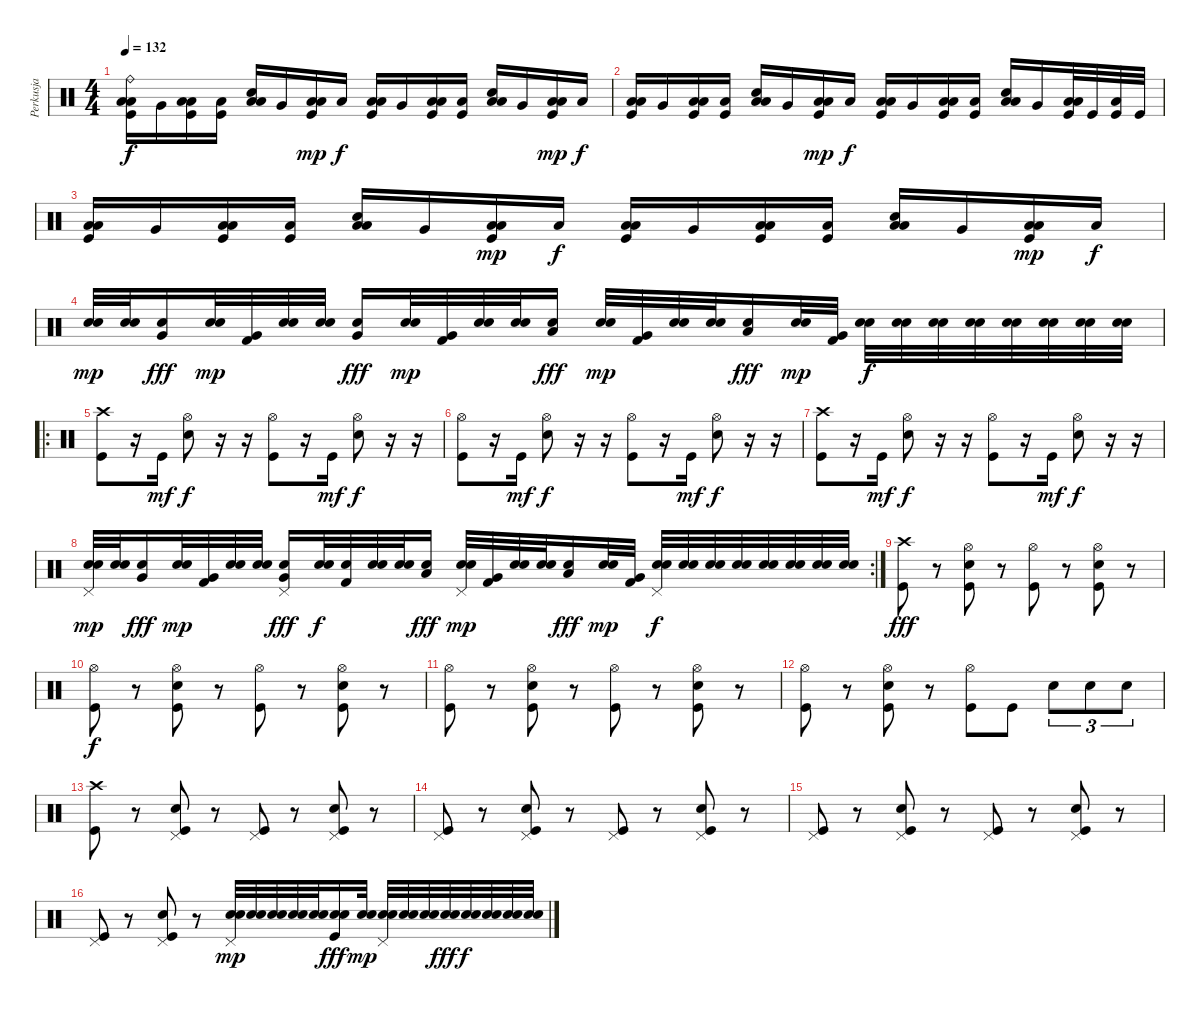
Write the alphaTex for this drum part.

\track ("Perkusja" "Perkusja") {instrument percussion}
\staff {score}
\articulation defaults
\ts (4 4)
\tempo 132
\clef neutral
\ks c
("Ride (bell)" "Low Floor Tom (hit)" "Low Floor Tom (hit)" "Kick (hit)").16{dy f} "Very Low Tom (hit)".16 ("Low Floor Tom (hit)" "Low Floor Tom (hit)" "Kick (hit)").16 ("Low Tom (hit)" "Kick (hit)").16 ("Low Floor Tom (hit)" "Low Floor Tom (hit)" "Electric Snare (hit)").16 "Very Low Tom (hit)".16 ("Low Floor Tom (hit)" "Low Floor Tom (hit)" "Kick (hit)").16{dy mp} "Low Tom (hit)".16{dy f} ("Low Floor Tom (hit)" "Low Floor Tom (hit)" "Kick (hit)").16 "Very Low Tom (hit)".16 ("Low Floor Tom (hit)" "Low Floor Tom (hit)" "Kick (hit)").16 ("Low Tom (hit)" "Kick (hit)").16 ("Low Floor Tom (hit)" "Low Floor Tom (hit)" "Electric Snare (hit)").16 "Very Low Tom (hit)".16 ("Low Floor Tom (hit)" "Low Floor Tom (hit)" "Kick (hit)").16{dy mp} "Low Tom (hit)".16{dy f} |
("Low Floor Tom (hit)" "Low Floor Tom (hit)" "Kick (hit)").16 "Very Low Tom (hit)".16 ("Low Floor Tom (hit)" "Low Floor Tom (hit)" "Kick (hit)").16 ("Low Tom (hit)" "Kick (hit)").16 ("Low Floor Tom (hit)" "Low Floor Tom (hit)" "Electric Snare (hit)").16 "Very Low Tom (hit)".16 ("Low Floor Tom (hit)" "Low Floor Tom (hit)" "Kick (hit)").16{dy mp} "Low Tom (hit)".16{dy f} ("Low Floor Tom (hit)" "Low Floor Tom (hit)" "Kick (hit)").16 "Very Low Tom (hit)".16 ("Low Floor Tom (hit)" "Low Floor Tom (hit)" "Kick (hit)").16 ("Low Tom (hit)" "Kick (hit)").16 ("Low Floor Tom (hit)" "Low Floor Tom (hit)" "Electric Snare (hit)").16 "Very Low Tom (hit)".16 ("Low Floor Tom (hit)" "Low Floor Tom (hit)" "Kick (hit)").32 "Kick (hit)".32 ("Low Tom (hit)" "Kick (hit)").32 "Kick (hit)".32 |
("Low Floor Tom (hit)" "Low Floor Tom (hit)" "Kick (hit)").16 "Very Low Tom (hit)".16 ("Low Floor Tom (hit)" "Low Floor Tom (hit)" "Kick (hit)").16 ("Low Tom (hit)" "Kick (hit)").16 ("Low Floor Tom (hit)" "Low Floor Tom (hit)" "Electric Snare (hit)").16 "Very Low Tom (hit)".16 ("Low Floor Tom (hit)" "Low Floor Tom (hit)" "Kick (hit)").16{dy mp} "Low Tom (hit)".16{dy f} ("Low Floor Tom (hit)" "Low Floor Tom (hit)" "Kick (hit)").16 "Very Low Tom (hit)".16 ("Low Floor Tom (hit)" "Low Floor Tom (hit)" "Kick (hit)").16 ("Low Tom (hit)" "Kick (hit)").16 ("Low Floor Tom (hit)" "Low Floor Tom (hit)" "Electric Snare (hit)").16 "Very Low Tom (hit)".16 ("Low Floor Tom (hit)" "Low Floor Tom (hit)" "Kick (hit)").16{dy mp} "Low Tom (hit)".16{dy f} |
("Electric Snare (hit)" "Electric Snare (hit)").32{dy mp} ("Electric Snare (hit)" "Electric Snare (hit)").32 ("Very Low Tom (hit)" "Electric Snare (hit)").16{dy fff} ("Electric Snare (hit)" "Electric Snare (hit)").32{dy mp} ("Very Low Tom (hit)" "Kick (hit) 2").32 ("Electric Snare (hit)" "Electric Snare (hit)").32 ("Electric Snare (hit)" "Electric Snare (hit)").32 ("Very Low Tom (hit)" "Electric Snare (hit)").16{dy fff} ("Electric Snare (hit)" "Electric Snare (hit)").32{dy mp} ("Very Low Tom (hit)" "Kick (hit) 2").32 ("Electric Snare (hit)" "Electric Snare (hit)").32 ("Electric Snare (hit)" "Electric Snare (hit)").32 ("Low Tom (hit)" "Electric Snare (hit)").16{dy fff} ("Electric Snare (hit)" "Electric Snare (hit)").32{dy mp} ("Very Low Tom (hit)" "Kick (hit) 2").32 ("Electric Snare (hit)" "Electric Snare (hit)").32 ("Electric Snare (hit)" "Electric Snare (hit)").32 ("Low Tom (hit)" "Electric Snare (hit)").16{dy fff} ("Electric Snare (hit)" "Electric Snare (hit)").32{dy mp} ("Very Low Tom (hit)" "Kick (hit) 2").32 ("Electric Snare (hit)" "Electric Snare (hit)").32{dy f} ("Electric Snare (hit)" "Electric Snare (hit)").32 ("Electric Snare (hit)" "Electric Snare (hit)").32 ("Electric Snare (hit)" "Electric Snare (hit)").32 ("Electric Snare (hit)" "Electric Snare (hit)").32 ("Electric Snare (hit)" "Electric Snare (hit)").32 ("Electric Snare (hit)" "Electric Snare (hit)").32 ("Electric Snare (hit)" "Electric Snare (hit)").32 |
\ro
("Crash high (hit)" "Kick (hit)").8 r.16 "Kick (hit)".16{dy mf} ("Hi-Hat (open)" "Electric Snare (hit)").8{dy f} r.16 r.16 ("Hi-Hat (open)" "Kick (hit)").8 r.16 "Kick (hit)".16{dy mf} ("Hi-Hat (open)" "Electric Snare (hit)").8{dy f} r.16 r.16 |
("Hi-Hat (open)" "Kick (hit)").8 r.16 "Kick (hit)".16{dy mf} ("Hi-Hat (open)" "Electric Snare (hit)").8{dy f} r.16 r.16 ("Hi-Hat (open)" "Kick (hit)").8 r.16 "Kick (hit)".16{dy mf} ("Hi-Hat (open)" "Electric Snare (hit)").8{dy f} r.16 r.16 |
("Crash high (hit)" "Kick (hit)").8 r.16 "Kick (hit)".16{dy mf} ("Hi-Hat (open)" "Electric Snare (hit)").8{dy f} r.16 r.16 ("Hi-Hat (open)" "Kick (hit)").8 r.16 "Kick (hit)".16{dy mf} ("Hi-Hat (open)" "Electric Snare (hit)").8{dy f} r.16 r.16 |
\rc 2
("Pedal Hi-Hat (hit)" "Electric Snare (hit)" "Electric Snare (hit)").32{dy mp} ("Electric Snare (hit)" "Electric Snare (hit)").32 ("Very Low Tom (hit)" "Electric Snare (hit)").16{dy fff} ("Electric Snare (hit)" "Electric Snare (hit)").32{dy mp} ("Very Low Tom (hit)" "Kick (hit) 2").32 ("Electric Snare (hit)" "Electric Snare (hit)").32 ("Electric Snare (hit)" "Electric Snare (hit)").32 ("Pedal Hi-Hat (hit)" "Very Low Tom (hit)" "Electric Snare (hit)").16{dy fff} ("Electric Snare (hit)" "Electric Snare (hit)").32{dy f} ("Electric Snare (hit)" "Kick (hit) 2").32 ("Electric Snare (hit)" "Electric Snare (hit)").32 ("Electric Snare (hit)" "Electric Snare (hit)").32 ("Low Tom (hit)" "Electric Snare (hit)").16{dy fff} ("Pedal Hi-Hat (hit)" "Electric Snare (hit)" "Electric Snare (hit)").32{dy mp} ("Very Low Tom (hit)" "Kick (hit) 2").32 ("Electric Snare (hit)" "Electric Snare (hit)").32 ("Electric Snare (hit)" "Electric Snare (hit)").32 ("Low Tom (hit)" "Electric Snare (hit)").16{dy fff} ("Electric Snare (hit)" "Electric Snare (hit)").32{dy mp} ("Very Low Tom (hit)" "Kick (hit) 2").32 ("Pedal Hi-Hat (hit)" "Electric Snare (hit)" "Electric Snare (hit)").32{dy f} ("Electric Snare (hit)" "Electric Snare (hit)").32 ("Electric Snare (hit)" "Electric Snare (hit)").32 ("Electric Snare (hit)" "Electric Snare (hit)").32 ("Electric Snare (hit)" "Electric Snare (hit)").32 ("Electric Snare (hit)" "Electric Snare (hit)").32 ("Electric Snare (hit)" "Electric Snare (hit)").32 ("Electric Snare (hit)" "Electric Snare (hit)").32 |
("Crash high (hit)" "Kick (hit)").8{dy fff} r.8 ("Hi-Hat (open)" "Electric Snare (hit)" "Kick (hit)").8 r.8 ("Hi-Hat (open)" "Kick (hit)").8 r.8 ("Hi-Hat (open)" "Electric Snare (hit)" "Kick (hit)").8 r.8 |
("Hi-Hat (open)" "Kick (hit)").8{dy f} r.8 ("Hi-Hat (open)" "Electric Snare (hit)" "Kick (hit)").8 r.8 ("Hi-Hat (open)" "Kick (hit)").8 r.8 ("Hi-Hat (open)" "Electric Snare (hit)" "Kick (hit)").8 r.8 |
("Hi-Hat (open)" "Kick (hit)").8 r.8 ("Hi-Hat (open)" "Electric Snare (hit)" "Kick (hit)").8 r.8 ("Hi-Hat (open)" "Kick (hit)").8 r.8 ("Hi-Hat (open)" "Electric Snare (hit)" "Kick (hit)").8 r.8 |
("Hi-Hat (open)" "Kick (hit)").8 r.8 ("Hi-Hat (open)" "Electric Snare (hit)" "Kick (hit)").8 r.8 ("Hi-Hat (open)" "Kick (hit)").8 "Kick (hit)".8 "Electric Snare (hit)".8{tu (3 2)} "Electric Snare (hit)".8{tu (3 2)} "Electric Snare (hit)".8{tu (3 2)} |
("Crash high (hit)" "Kick (hit)").8 r.8 ("Pedal Hi-Hat (hit)" "Electric Snare (hit)" "Kick (hit)").8 r.8 ("Pedal Hi-Hat (hit)" "Kick (hit)").8 r.8 ("Pedal Hi-Hat (hit)" "Electric Snare (hit)" "Kick (hit)").8 r.8 |
("Pedal Hi-Hat (hit)" "Kick (hit)").8 r.8 ("Pedal Hi-Hat (hit)" "Electric Snare (hit)" "Kick (hit)").8 r.8 ("Pedal Hi-Hat (hit)" "Kick (hit)").8 r.8 ("Pedal Hi-Hat (hit)" "Electric Snare (hit)" "Kick (hit)").8 r.8 |
("Pedal Hi-Hat (hit)" "Kick (hit)").8 r.8 ("Pedal Hi-Hat (hit)" "Electric Snare (hit)" "Kick (hit)").8 r.8 ("Pedal Hi-Hat (hit)" "Kick (hit)").8 r.8 ("Pedal Hi-Hat (hit)" "Electric Snare (hit)" "Kick (hit)").8 r.8 |
("Pedal Hi-Hat (hit)" "Kick (hit)").8 r.8 ("Pedal Hi-Hat (hit)" "Electric Snare (hit)" "Kick (hit)").8 r.8 ("Pedal Hi-Hat (hit)" "Electric Snare (hit)" "Electric Snare (hit)").32{dy mp} ("Electric Snare (hit)" "Electric Snare (hit)").32 ("Electric Snare (hit)" "Electric Snare (hit)").32 ("Electric Snare (hit)" "Electric Snare (hit)").32 ("Electric Snare (hit)" "Electric Snare (hit)").32 ("Electric Snare (hit)" "Electric Snare (hit)" "Kick (hit)").16{dy fff} ("Electric Snare (hit)" "Electric Snare (hit)").32{dy mp} ("Pedal Hi-Hat (hit)" "Electric Snare (hit)" "Electric Snare (hit)").32 ("Electric Snare (hit)" "Electric Snare (hit)").32 ("Electric Snare (hit)" "Electric Snare (hit)").32 ("Electric Snare (hit)" "Electric Snare (hit)").32{dy fff} ("Electric Snare (hit)" "Electric Snare (hit)").32{dy f} ("Electric Snare (hit)" "Electric Snare (hit)").32 ("Electric Snare (hit)" "Electric Snare (hit)").32 ("Electric Snare (hit)" "Electric Snare (hit)").32
